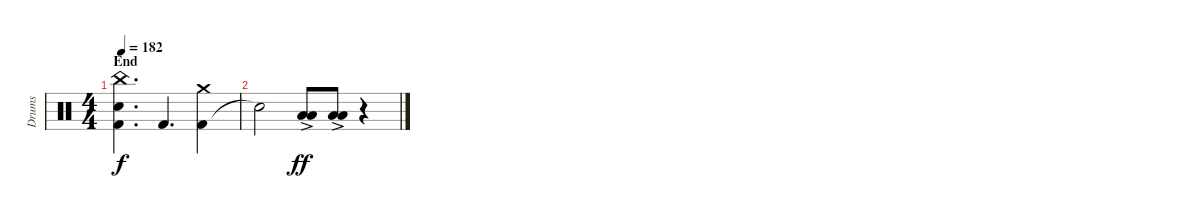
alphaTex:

\track ("Drums" "Drums") {instrument percussion}
\staff {score}
\articulation defaults
\ts (4 4)
\section ("" "End")
\tempo 182
\clef neutral
\ks c
("Kick (hit) 2" "Snare (hit) 2" "China (hit)").4{d dy f} "Kick (hit) 2".4{d} ("Kick (hit) 2" "Crash medium (hit)").4 |
"Snare (hit)"{t}.2 ("Low Floor Tom (hit)"{ac} "Low Floor Tom (hit)").8{dy ff} ("Low Floor Tom (hit)"{ac} "Low Floor Tom (hit)").8 r.4
